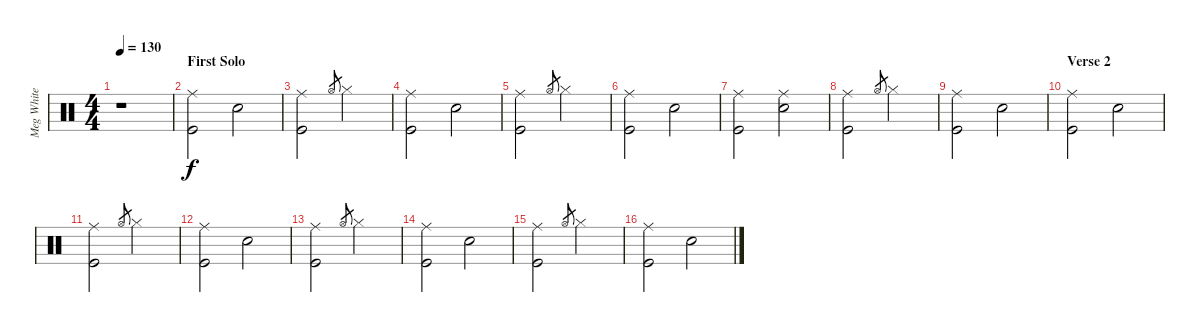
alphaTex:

\track ("Meg White (Drums)" "Meg White ") {instrument percussion}
\staff {score}
\articulation defaults
\ts (4 4)
\tempo 130
\clef neutral
\ks c
r.1{dy f} |
\section ("" "First Solo")
("Kick (hit)" "Ride (middle)").2 "Snare (hit) 2".2 |
("Kick (hit)" "Ride (middle)").2 "Hi-Hat (open)"{h}.8{gr} "Hi-Hat (closed)".2 |
("Kick (hit)" "Ride (middle)").2 "Snare (hit) 2".2 |
("Kick (hit)" "Ride (middle)").2 "Hi-Hat (open)"{h}.8{gr} "Hi-Hat (closed)".2 |
("Kick (hit)" "Ride (middle)").2 "Snare (hit) 2".2 |
("Kick (hit)" "Ride (middle)").2 ("Snare (hit) 2" "Ride (middle)").2 |
("Kick (hit)" "Ride (middle)").2 "Hi-Hat (open)"{h}.8{gr} "Hi-Hat (closed)".2 |
("Kick (hit)" "Ride (middle)").2 "Snare (hit) 2".2 |
\section ("" "Verse 2 ")
("Kick (hit)" "Ride (middle)").2 "Snare (hit) 2".2 |
("Kick (hit)" "Ride (middle)").2 "Hi-Hat (open)"{h}.8{gr} "Hi-Hat (closed)".2 |
("Kick (hit)" "Ride (middle)").2 "Snare (hit) 2".2 |
("Kick (hit)" "Ride (middle)").2 "Hi-Hat (open)"{h}.8{gr} "Hi-Hat (closed)".2 |
("Kick (hit)" "Ride (middle)").2 "Snare (hit) 2".2 |
("Kick (hit)" "Ride (middle)").2 "Hi-Hat (open)"{h}.8{gr} "Hi-Hat (closed)".2 |
("Kick (hit)" "Ride (middle)").2 "Snare (hit) 2".2
